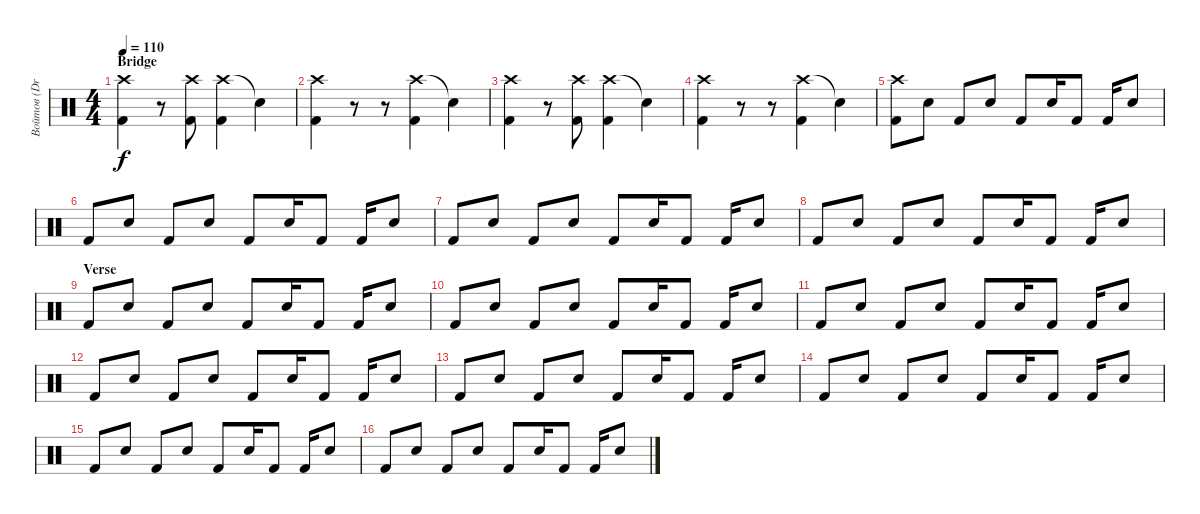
\track ("Войтов (Drums)" "Войтов (Dr") {instrument percussion}
\staff {score}
\articulation defaults
\ts (4 4)
\section ("" "Bridge")
\tempo 110
\clef neutral
\ks c
("Crash high (hit)" "Kick (hit) 2").4{dy f} r.8 ("Crash high (hit)" "Kick (hit) 2").8 ("Crash high (hit)" "Kick (hit) 2").4 "Snare (hit)"{t}.4 |
("Crash high (hit)" "Kick (hit) 2").4 r.8 r.8 ("Crash high (hit)" "Kick (hit) 2").4 "Snare (hit)"{t}.4 |
("Crash high (hit)" "Kick (hit) 2").4 r.8 ("Crash high (hit)" "Kick (hit) 2").8 ("Crash high (hit)" "Kick (hit) 2").4 "Snare (hit)"{t}.4 |
("Crash high (hit)" "Kick (hit) 2").4 r.8 r.8 ("Crash high (hit)" "Kick (hit) 2").4 "Snare (hit)"{t}.4 |
("Kick (hit) 2" "Crash high (hit)").8 "Electric Snare (hit)".8 "Kick (hit) 2".8 "Electric Snare (hit)".8 "Kick (hit) 2".8 "Electric Snare (hit)".16 "Kick (hit) 2".8 "Kick (hit) 2".16 "Electric Snare (hit)".8 |
"Kick (hit) 2".8 "Electric Snare (hit)".8 "Kick (hit) 2".8 "Electric Snare (hit)".8 "Kick (hit) 2".8 "Electric Snare (hit)".16 "Kick (hit) 2".8 "Kick (hit) 2".16 "Electric Snare (hit)".8 |
"Kick (hit) 2".8 "Electric Snare (hit)".8 "Kick (hit) 2".8 "Electric Snare (hit)".8 "Kick (hit) 2".8 "Electric Snare (hit)".16 "Kick (hit) 2".8 "Kick (hit) 2".16 "Electric Snare (hit)".8 |
"Kick (hit) 2".8 "Electric Snare (hit)".8 "Kick (hit) 2".8 "Electric Snare (hit)".8 "Kick (hit) 2".8 "Electric Snare (hit)".16 "Kick (hit) 2".8 "Kick (hit) 2".16 "Electric Snare (hit)".8 |
\section ("" "Verse")
"Kick (hit) 2".8 "Electric Snare (hit)".8 "Kick (hit) 2".8 "Electric Snare (hit)".8 "Kick (hit) 2".8 "Electric Snare (hit)".16 "Kick (hit) 2".8 "Kick (hit) 2".16 "Electric Snare (hit)".8 |
"Kick (hit) 2".8 "Electric Snare (hit)".8 "Kick (hit) 2".8 "Electric Snare (hit)".8 "Kick (hit) 2".8 "Electric Snare (hit)".16 "Kick (hit) 2".8 "Kick (hit) 2".16 "Electric Snare (hit)".8 |
"Kick (hit) 2".8 "Electric Snare (hit)".8 "Kick (hit) 2".8 "Electric Snare (hit)".8 "Kick (hit) 2".8 "Electric Snare (hit)".16 "Kick (hit) 2".8 "Kick (hit) 2".16 "Electric Snare (hit)".8 |
"Kick (hit) 2".8 "Electric Snare (hit)".8 "Kick (hit) 2".8 "Electric Snare (hit)".8 "Kick (hit) 2".8 "Electric Snare (hit)".16 "Kick (hit) 2".8 "Kick (hit) 2".16 "Electric Snare (hit)".8 |
"Kick (hit) 2".8 "Electric Snare (hit)".8 "Kick (hit) 2".8 "Electric Snare (hit)".8 "Kick (hit) 2".8 "Electric Snare (hit)".16 "Kick (hit) 2".8 "Kick (hit) 2".16 "Electric Snare (hit)".8 |
"Kick (hit) 2".8 "Electric Snare (hit)".8 "Kick (hit) 2".8 "Electric Snare (hit)".8 "Kick (hit) 2".8 "Electric Snare (hit)".16 "Kick (hit) 2".8 "Kick (hit) 2".16 "Electric Snare (hit)".8 |
"Kick (hit) 2".8 "Electric Snare (hit)".8 "Kick (hit) 2".8 "Electric Snare (hit)".8 "Kick (hit) 2".8 "Electric Snare (hit)".16 "Kick (hit) 2".8 "Kick (hit) 2".16 "Electric Snare (hit)".8 |
"Kick (hit) 2".8 "Electric Snare (hit)".8 "Kick (hit) 2".8 "Electric Snare (hit)".8 "Kick (hit) 2".8 "Electric Snare (hit)".16 "Kick (hit) 2".8 "Kick (hit) 2".16 "Electric Snare (hit)".8
